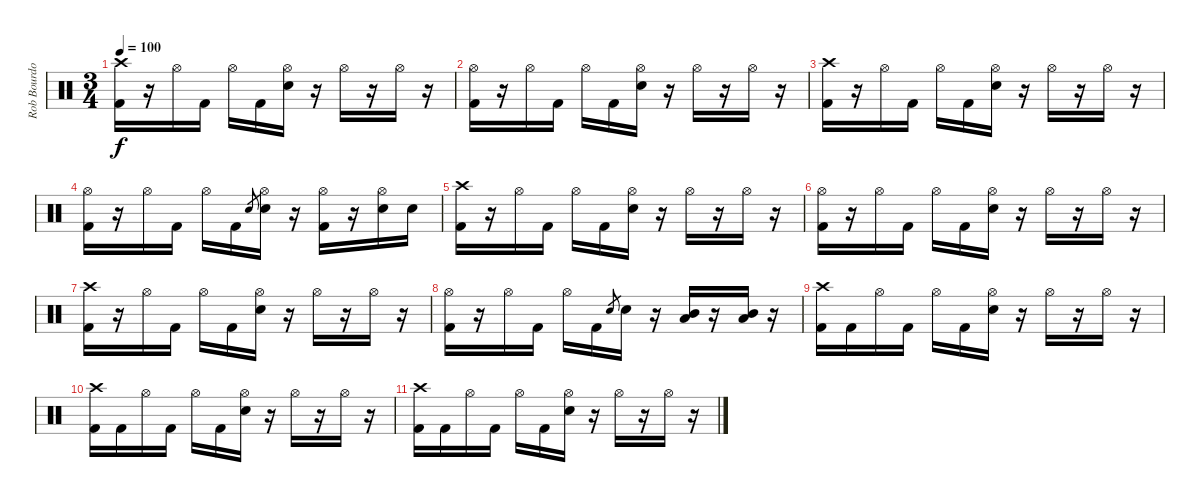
\track ("Rob Bourdon (Drums)" "Rob Bourdo") {instrument percussion}
\staff {score}
\articulation defaults
\ts (3 4)
\tempo 100
\clef neutral
\ks c
("Crash high (hit)" "Kick (hit) 2").16{dy f} r.16 "Hi-Hat (open)".16 "Kick (hit) 2".16 "Hi-Hat (open)".16 "Kick (hit) 2".16 ("Hi-Hat (open)" "Electric Snare (hit)").16 r.16 "Hi-Hat (open)".16 r.16 "Hi-Hat (open)".16 r.16 |
("Hi-Hat (open)" "Kick (hit) 2").16 r.16 "Hi-Hat (open)".16 "Kick (hit) 2".16 "Hi-Hat (open)".16 "Kick (hit) 2".16 ("Hi-Hat (open)" "Electric Snare (hit)").16 r.16 "Hi-Hat (open)".16 r.16 "Hi-Hat (open)".16 r.16 |
("Crash high (hit)" "Kick (hit) 2").16 r.16 "Hi-Hat (open)".16 "Kick (hit) 2".16 "Hi-Hat (open)".16 "Kick (hit) 2".16 ("Hi-Hat (open)" "Electric Snare (hit)").16 r.16 "Hi-Hat (open)".16 r.16 "Hi-Hat (open)".16 r.16 |
("Hi-Hat (open)" "Kick (hit) 2").16 r.16 "Hi-Hat (open)".16 "Kick (hit) 2".16 "Hi-Hat (open)".16 "Kick (hit) 2".16 "Electric Snare (hit)".8{gr} ("Hi-Hat (open)" "Electric Snare (hit)").16 r.16 ("Hi-Hat (open)" "Kick (hit) 2").16 r.16 ("Hi-Hat (open)" "Electric Snare (hit)").16 "Electric Snare (hit)".16 |
("Crash high (hit)" "Kick (hit) 2").16 r.16 "Hi-Hat (open)".16 "Kick (hit) 2".16 "Hi-Hat (open)".16 "Kick (hit) 2".16 ("Hi-Hat (open)" "Electric Snare (hit)").16 r.16 "Hi-Hat (open)".16 r.16 "Hi-Hat (open)".16 r.16 |
("Hi-Hat (open)" "Kick (hit) 2").16 r.16 "Hi-Hat (open)".16 "Kick (hit) 2".16 "Hi-Hat (open)".16 "Kick (hit) 2".16 ("Hi-Hat (open)" "Electric Snare (hit)").16 r.16 "Hi-Hat (open)".16 r.16 "Hi-Hat (open)".16 r.16 |
("Crash high (hit)" "Kick (hit) 2").16 r.16 "Hi-Hat (open)".16 "Kick (hit) 2".16 "Hi-Hat (open)".16 "Kick (hit) 2".16 ("Hi-Hat (open)" "Electric Snare (hit)").16 r.16 "Hi-Hat (open)".16 r.16 "Hi-Hat (open)".16 r.16 |
("Hi-Hat (open)" "Kick (hit) 2").16 r.16 "Hi-Hat (open)".16 "Kick (hit) 2".16 "Hi-Hat (open)".16 "Kick (hit) 2".16 "Electric Snare (hit)".8{gr} "Electric Snare (hit)".16 r.16 ("Mid Tom (hit)" "Low Tom (hit)").16 r.16 ("Mid Tom (hit)" "Low Tom (hit)").16 r.16 |
("Crash high (hit)" "Kick (hit) 2").16 "Kick (hit) 2".16 "Hi-Hat (open)".16 "Kick (hit) 2".16 "Hi-Hat (open)".16 "Kick (hit) 2".16 ("Hi-Hat (open)" "Electric Snare (hit)").16 r.16 "Hi-Hat (open)".16 r.16 "Hi-Hat (open)".16 r.16 |
("Crash high (hit)" "Kick (hit) 2").16 "Kick (hit) 2".16 "Hi-Hat (open)".16 "Kick (hit) 2".16 "Hi-Hat (open)".16 "Kick (hit) 2".16 ("Hi-Hat (open)" "Electric Snare (hit)").16 r.16 "Hi-Hat (open)".16 r.16 "Hi-Hat (open)".16 r.16 |
("Crash high (hit)" "Kick (hit) 2").16 "Kick (hit) 2".16 "Hi-Hat (open)".16 "Kick (hit) 2".16 "Hi-Hat (open)".16 "Kick (hit) 2".16 ("Hi-Hat (open)" "Electric Snare (hit)").16 r.16 "Hi-Hat (open)".16 r.16 "Hi-Hat (open)".16 r.16
